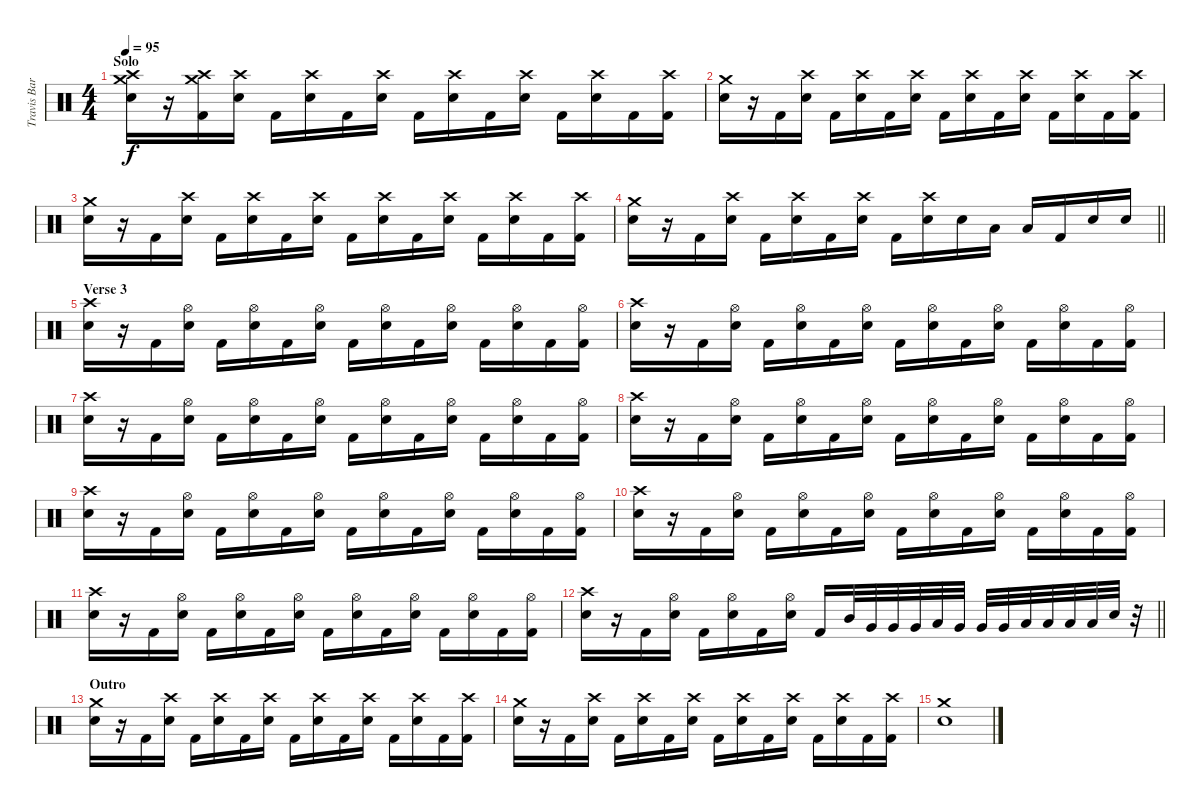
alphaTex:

\track ("Travis Barker [Drums]" "Travis Bar") {instrument percussion}
\staff {score}
\articulation defaults
\ts (4 4)
\section ("" "Solo")
\tempo 95
\clef neutral
\ks c
("Crash medium (hit)" "Crash high (hit)" "Electric Snare (hit)").16{dy f} r.16 ("Crash medium (hit)" "Crash high (hit)" "Kick (hit) 2").16 ("Crash high (hit)" "Electric Snare (hit)").16 "Kick (hit) 2".16 ("Crash high (hit)" "Electric Snare (hit)").16 "Kick (hit) 2".16 ("Crash high (hit)" "Electric Snare (hit)").16 "Kick (hit) 2".16 ("Crash high (hit)" "Electric Snare (hit)").16 "Kick (hit) 2".16 ("Crash high (hit)" "Electric Snare (hit)").16 "Kick (hit) 2".16 ("Crash high (hit)" "Electric Snare (hit)").16 "Kick (hit) 2".16 ("Crash high (hit)" "Kick (hit) 2").16 |
("Crash medium (hit)" "Electric Snare (hit)").16 r.16 "Kick (hit) 2".16 ("Crash high (hit)" "Electric Snare (hit)").16 "Kick (hit) 2".16 ("Crash high (hit)" "Electric Snare (hit)").16 "Kick (hit) 2".16 ("Crash high (hit)" "Electric Snare (hit)").16 "Kick (hit) 2".16 ("Crash high (hit)" "Electric Snare (hit)").16 "Kick (hit) 2".16 ("Crash high (hit)" "Electric Snare (hit)").16 "Kick (hit) 2".16 ("Crash high (hit)" "Electric Snare (hit)").16 "Kick (hit) 2".16 ("Crash high (hit)" "Kick (hit) 2").16 |
("Crash medium (hit)" "Electric Snare (hit)").16 r.16 "Kick (hit) 2".16 ("Crash high (hit)" "Electric Snare (hit)").16 "Kick (hit) 2".16 ("Crash high (hit)" "Electric Snare (hit)").16 "Kick (hit) 2".16 ("Crash high (hit)" "Electric Snare (hit)").16 "Kick (hit) 2".16 ("Crash high (hit)" "Electric Snare (hit)").16 "Kick (hit) 2".16 ("Crash high (hit)" "Electric Snare (hit)").16 "Kick (hit) 2".16 ("Crash high (hit)" "Electric Snare (hit)").16 "Kick (hit) 2".16 ("Crash high (hit)" "Kick (hit) 2").16 |
\barLineRight lightlight
("Crash medium (hit)" "Electric Snare (hit)").16 r.16 "Kick (hit) 2".16 ("Crash high (hit)" "Electric Snare (hit)").16 "Kick (hit) 2".16 ("Crash high (hit)" "Electric Snare (hit)").16 "Kick (hit) 2".16 ("Crash high (hit)" "Electric Snare (hit)").16 "Kick (hit) 2".16 ("Crash high (hit)" "Electric Snare (hit)").16 "Electric Snare (hit)".16 "Low Tom (hit)".16 "Low Tom (hit)".16 "Kick (hit) 2".16 "Electric Snare (hit)".16 "Electric Snare (hit)".16 |
\section ("" "Verse 3")
("Crash high (hit)" "Electric Snare (hit)").16 r.16 "Kick (hit) 2".16 ("Hi-Hat (open)" "Electric Snare (hit)").16 "Kick (hit) 2".16 ("Hi-Hat (open)" "Electric Snare (hit)").16 "Kick (hit) 2".16 ("Hi-Hat (open)" "Electric Snare (hit)").16 "Kick (hit) 2".16 ("Hi-Hat (open)" "Electric Snare (hit)").16 "Kick (hit) 2".16 ("Hi-Hat (open)" "Electric Snare (hit)").16 "Kick (hit) 2".16 ("Hi-Hat (open)" "Electric Snare (hit)").16 "Kick (hit) 2".16 ("Hi-Hat (open)" "Kick (hit) 2").16 |
("Crash high (hit)" "Electric Snare (hit)").16 r.16 "Kick (hit) 2".16 ("Hi-Hat (open)" "Electric Snare (hit)").16 "Kick (hit) 2".16 ("Hi-Hat (open)" "Electric Snare (hit)").16 "Kick (hit) 2".16 ("Hi-Hat (open)" "Electric Snare (hit)").16 "Kick (hit) 2".16 ("Hi-Hat (open)" "Electric Snare (hit)").16 "Kick (hit) 2".16 ("Hi-Hat (open)" "Electric Snare (hit)").16 "Kick (hit) 2".16 ("Hi-Hat (open)" "Electric Snare (hit)").16 "Kick (hit) 2".16 ("Hi-Hat (open)" "Kick (hit) 2").16 |
("Crash high (hit)" "Electric Snare (hit)").16 r.16 "Kick (hit) 2".16 ("Hi-Hat (open)" "Electric Snare (hit)").16 "Kick (hit) 2".16 ("Hi-Hat (open)" "Electric Snare (hit)").16 "Kick (hit) 2".16 ("Hi-Hat (open)" "Electric Snare (hit)").16 "Kick (hit) 2".16 ("Hi-Hat (open)" "Electric Snare (hit)").16 "Kick (hit) 2".16 ("Hi-Hat (open)" "Electric Snare (hit)").16 "Kick (hit) 2".16 ("Hi-Hat (open)" "Electric Snare (hit)").16 "Kick (hit) 2".16 ("Hi-Hat (open)" "Kick (hit) 2").16 |
("Crash high (hit)" "Electric Snare (hit)").16 r.16 "Kick (hit) 2".16 ("Hi-Hat (open)" "Electric Snare (hit)").16 "Kick (hit) 2".16 ("Hi-Hat (open)" "Electric Snare (hit)").16 "Kick (hit) 2".16 ("Hi-Hat (open)" "Electric Snare (hit)").16 "Kick (hit) 2".16 ("Hi-Hat (open)" "Electric Snare (hit)").16 "Kick (hit) 2".16 ("Hi-Hat (open)" "Electric Snare (hit)").16 "Kick (hit) 2".16 ("Hi-Hat (open)" "Electric Snare (hit)").16 "Kick (hit) 2".16 ("Hi-Hat (open)" "Kick (hit) 2").16 |
("Crash high (hit)" "Electric Snare (hit)").16 r.16 "Kick (hit) 2".16 ("Hi-Hat (open)" "Electric Snare (hit)").16 "Kick (hit) 2".16 ("Hi-Hat (open)" "Electric Snare (hit)").16 "Kick (hit) 2".16 ("Hi-Hat (open)" "Electric Snare (hit)").16 "Kick (hit) 2".16 ("Hi-Hat (open)" "Electric Snare (hit)").16 "Kick (hit) 2".16 ("Hi-Hat (open)" "Electric Snare (hit)").16 "Kick (hit) 2".16 ("Hi-Hat (open)" "Electric Snare (hit)").16 "Kick (hit) 2".16 ("Hi-Hat (open)" "Kick (hit) 2").16 |
("Crash high (hit)" "Electric Snare (hit)").16 r.16 "Kick (hit) 2".16 ("Hi-Hat (open)" "Electric Snare (hit)").16 "Kick (hit) 2".16 ("Hi-Hat (open)" "Electric Snare (hit)").16 "Kick (hit) 2".16 ("Hi-Hat (open)" "Electric Snare (hit)").16 "Kick (hit) 2".16 ("Hi-Hat (open)" "Electric Snare (hit)").16 "Kick (hit) 2".16 ("Hi-Hat (open)" "Electric Snare (hit)").16 "Kick (hit) 2".16 ("Hi-Hat (open)" "Electric Snare (hit)").16 "Kick (hit) 2".16 ("Hi-Hat (open)" "Kick (hit) 2").16 |
("Crash high (hit)" "Electric Snare (hit)").16 r.16 "Kick (hit) 2".16 ("Hi-Hat (open)" "Electric Snare (hit)").16 "Kick (hit) 2".16 ("Hi-Hat (open)" "Electric Snare (hit)").16 "Kick (hit) 2".16 ("Hi-Hat (open)" "Electric Snare (hit)").16 "Kick (hit) 2".16 ("Hi-Hat (open)" "Electric Snare (hit)").16 "Kick (hit) 2".16 ("Hi-Hat (open)" "Electric Snare (hit)").16 "Kick (hit) 2".16 ("Hi-Hat (open)" "Electric Snare (hit)").16 "Kick (hit) 2".16 ("Hi-Hat (open)" "Kick (hit) 2").16 |
\barLineRight lightlight
("Crash high (hit)" "Electric Snare (hit)").16 r.16 "Kick (hit) 2".16 ("Hi-Hat (open)" "Electric Snare (hit)").16 "Kick (hit) 2".16 ("Hi-Hat (open)" "Electric Snare (hit)").16 "Kick (hit) 2".16 ("Hi-Hat (open)" "Electric Snare (hit)").16 "Kick (hit) 2".16 "Mid Tom (hit)".32 "Very Low Tom (hit)".32 "Very Low Tom (hit)".32 "Very Low Tom (hit)".32 "Low Tom (hit)".32 "Very Low Tom (hit)".32 "Very Low Tom (hit)".32 "Very Low Tom (hit)".32 "Low Tom (hit)".32 "Low Floor Tom (hit)".32 "Low Floor Tom (hit)".32 "Low Floor Tom (hit)".32 "Electric Snare (hit)".32 r.32 |
\section ("" "Outro")
("Crash medium (hit)" "Electric Snare (hit)").16 r.16 "Kick (hit) 2".16 ("Crash high (hit)" "Electric Snare (hit)").16 "Kick (hit) 2".16 ("Crash high (hit)" "Electric Snare (hit)").16 "Kick (hit) 2".16 ("Crash high (hit)" "Electric Snare (hit)").16 "Kick (hit) 2".16 ("Crash high (hit)" "Electric Snare (hit)").16 "Kick (hit) 2".16 ("Crash high (hit)" "Electric Snare (hit)").16 "Kick (hit) 2".16 ("Crash high (hit)" "Electric Snare (hit)").16 "Kick (hit) 2".16 ("Crash high (hit)" "Kick (hit) 2").16 |
("Crash medium (hit)" "Electric Snare (hit)").16 r.16 "Kick (hit) 2".16 ("Crash high (hit)" "Electric Snare (hit)").16 "Kick (hit) 2".16 ("Crash high (hit)" "Electric Snare (hit)").16 "Kick (hit) 2".16 ("Crash high (hit)" "Electric Snare (hit)").16 "Kick (hit) 2".16 ("Crash high (hit)" "Electric Snare (hit)").16 "Kick (hit) 2".16 ("Crash high (hit)" "Electric Snare (hit)").16 "Kick (hit) 2".16 ("Crash high (hit)" "Electric Snare (hit)").16 "Kick (hit) 2".16 ("Crash high (hit)" "Kick (hit) 2").16 |
("Crash medium (hit)" "Electric Snare (hit)").1
